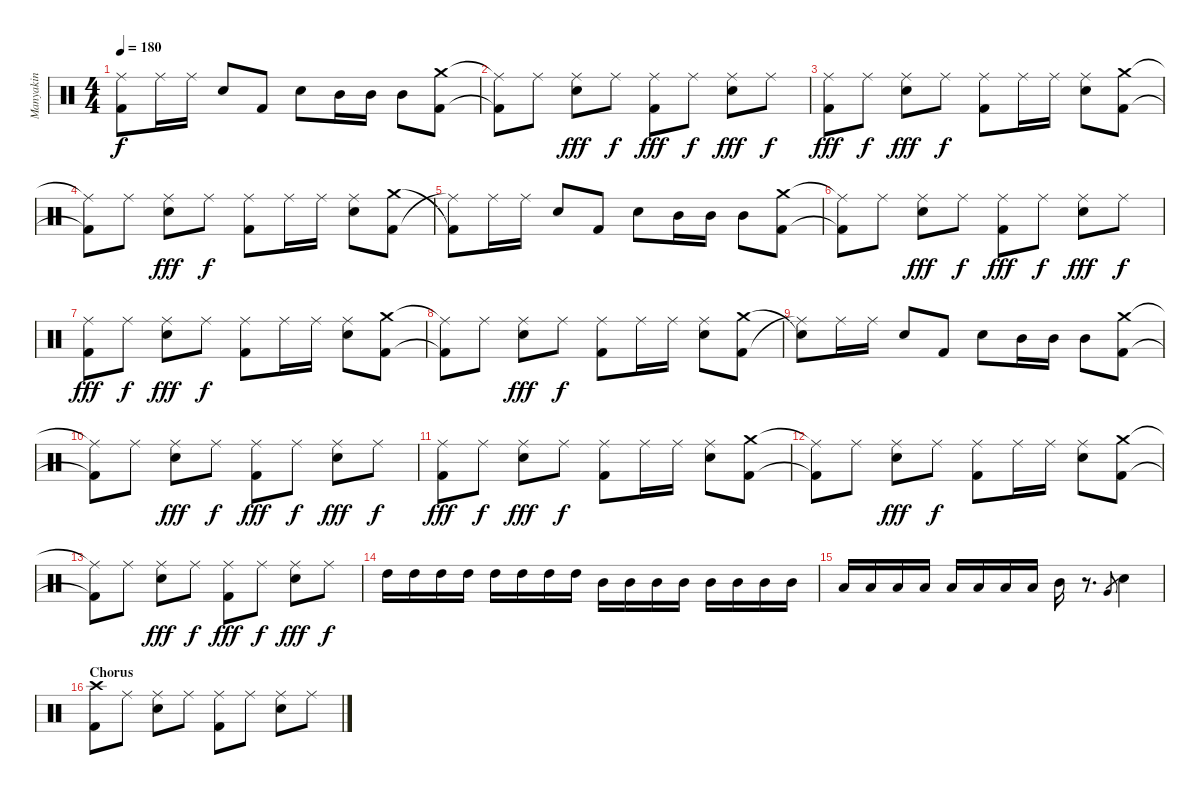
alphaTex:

\track ("Manyakin" "Manyakin") {instrument percussion}
\staff {score}
\articulation defaults
\ts (4 4)
\tempo 180
\clef neutral
\ks c
("Ride (middle)"{t} "Kick (hit) 2"{t}).8{dy f} "Ride (middle)".16 "Ride (middle)".16 "Snare (hit) 2".8 "Kick (hit) 2".8 "Snare (hit) 2".8 "Mid Tom (hit)".16 "Mid Tom (hit)".16 "Mid Tom (hit)".8 ("Kick (hit) 2" "Crash medium (hit)").8 |
("Kick (hit) 2"{t} "Ride (middle)"{t}).8 "Ride (middle)".8 ("Snare (hit) 2" "Ride (middle)").8{dy fff} "Ride (middle)".8{dy f} ("Kick (hit) 2" "Ride (middle)").8{dy fff} "Ride (middle)".8{dy f} ("Snare (hit) 2" "Ride (middle)").8{dy fff} "Ride (middle)".8{dy f} |
("Kick (hit) 2" "Ride (middle)").8{dy fff} "Ride (middle)".8{dy f} ("Snare (hit) 2" "Ride (middle)").8{dy fff} "Ride (middle)".8{dy f} ("Kick (hit) 2" "Ride (middle)").8 "Ride (middle)".16 "Ride (middle)".16 ("Snare (hit) 2" "Ride (middle)").8 ("Kick (hit) 2" "Crash medium (hit)").8 |
("Kick (hit) 2"{t} "Ride (middle)"{t}).8 "Ride (middle)".8 ("Snare (hit) 2" "Ride (middle)").8{dy fff} "Ride (middle)".8{dy f} ("Kick (hit) 2" "Ride (middle)").8 "Ride (middle)".16 "Ride (middle)".16 ("Snare (hit) 2" "Ride (middle)").8 ("Kick (hit) 2" "Crash medium (hit)").8 |
("Ride (middle)"{t} "Kick (hit) 2"{t}).8 "Ride (middle)".16 "Ride (middle)".16 "Snare (hit) 2".8 "Kick (hit) 2".8 "Snare (hit) 2".8 "Mid Tom (hit)".16 "Mid Tom (hit)".16 "Mid Tom (hit)".8 ("Kick (hit) 2" "Crash medium (hit)").8 |
("Kick (hit) 2"{t} "Ride (middle)"{t}).8 "Ride (middle)".8 ("Snare (hit) 2" "Ride (middle)").8{dy fff} "Ride (middle)".8{dy f} ("Kick (hit) 2" "Ride (middle)").8{dy fff} "Ride (middle)".8{dy f} ("Snare (hit) 2" "Ride (middle)").8{dy fff} "Ride (middle)".8{dy f} |
("Kick (hit) 2" "Ride (middle)").8{dy fff} "Ride (middle)".8{dy f} ("Snare (hit) 2" "Ride (middle)").8{dy fff} "Ride (middle)".8{dy f} ("Kick (hit) 2" "Ride (middle)").8 "Ride (middle)".16 "Ride (middle)".16 ("Snare (hit) 2" "Ride (middle)").8 ("Kick (hit) 2" "Crash medium (hit)").8 |
("Kick (hit) 2"{t} "Ride (middle)"{t}).8 "Ride (middle)".8 ("Snare (hit) 2" "Ride (middle)").8{dy fff} "Ride (middle)".8{dy f} ("Kick (hit) 2" "Ride (middle)").8 "Ride (middle)".16 "Ride (middle)".16 ("Snare (hit) 2" "Ride (middle)").8 ("Kick (hit) 2" "Crash medium (hit)").8 |
("Ride (middle)"{t} "Snare (hit)"{t}).8 "Ride (middle)".16 "Ride (middle)".16 "Snare (hit) 2".8 "Kick (hit) 2".8 "Snare (hit) 2".8 "Mid Tom (hit)".16 "Mid Tom (hit)".16 "Mid Tom (hit)".8 ("Kick (hit) 2" "Crash medium (hit)").8 |
("Kick (hit) 2"{t} "Ride (middle)"{t}).8 "Ride (middle)".8 ("Snare (hit) 2" "Ride (middle)").8{dy fff} "Ride (middle)".8{dy f} ("Kick (hit) 2" "Ride (middle)").8{dy fff} "Ride (middle)".8{dy f} ("Snare (hit) 2" "Ride (middle)").8{dy fff} "Ride (middle)".8{dy f} |
("Kick (hit) 2" "Ride (middle)").8{dy fff} "Ride (middle)".8{dy f} ("Snare (hit) 2" "Ride (middle)").8{dy fff} "Ride (middle)".8{dy f} ("Kick (hit) 2" "Ride (middle)").8 "Ride (middle)".16 "Ride (middle)".16 ("Snare (hit) 2" "Ride (middle)").8 ("Kick (hit) 2" "Crash medium (hit)").8 |
("Kick (hit) 2"{t} "Ride (middle)"{t}).8 "Ride (middle)".8 ("Snare (hit) 2" "Ride (middle)").8{dy fff} "Ride (middle)".8{dy f} ("Kick (hit) 2" "Ride (middle)").8 "Ride (middle)".16 "Ride (middle)".16 ("Snare (hit) 2" "Ride (middle)").8 ("Kick (hit) 2" "Crash medium (hit)").8 |
("Kick (hit) 2"{t} "Ride (middle)"{t}).8 "Ride (middle)".8 ("Snare (hit) 2" "Ride (middle)").8{dy fff} "Ride (middle)".8{dy f} ("Kick (hit) 2" "Ride (middle)").8{dy fff} "Ride (middle)".8{dy f} ("Snare (hit) 2" "Ride (middle)").8{dy fff} "Ride (middle)".8{dy f} |
"High Tom (hit)".16 "High Tom (hit)".16 "High Tom (hit)".16 "High Tom (hit)".16 "High Tom (hit)".16 "High Tom (hit)".16 "High Tom (hit)".16 "High Tom (hit)".16 "Mid Tom (hit)".16 "Mid Tom (hit)".16 "Mid Tom (hit)".16 "Mid Tom (hit)".16 "Mid Tom (hit)".16 "Mid Tom (hit)".16 "Mid Tom (hit)".16 "Mid Tom (hit)".16 |
"Low Tom (hit)".16 "Low Tom (hit)".16 "Low Tom (hit)".16 "Low Tom (hit)".16 "Low Tom (hit)".16 "Low Tom (hit)".16 "Low Tom (hit)".16 "Low Tom (hit)".16 "Mid Tom (hit)".16 r.8{d} "Very Low Tom (hit)".8{gr} "Snare (hit) 2".4 |
\section ("" "Chorus")
("Kick (hit) 2" "Crash high (hit)").8 "Ride (middle)".8 ("Snare (hit) 2" "Ride (middle)").8 "Ride (middle)".8 ("Kick (hit) 2" "Ride (middle)").8 "Ride (middle)".8 ("Snare (hit) 2" "Ride (middle)").8 "Ride (middle)".8
